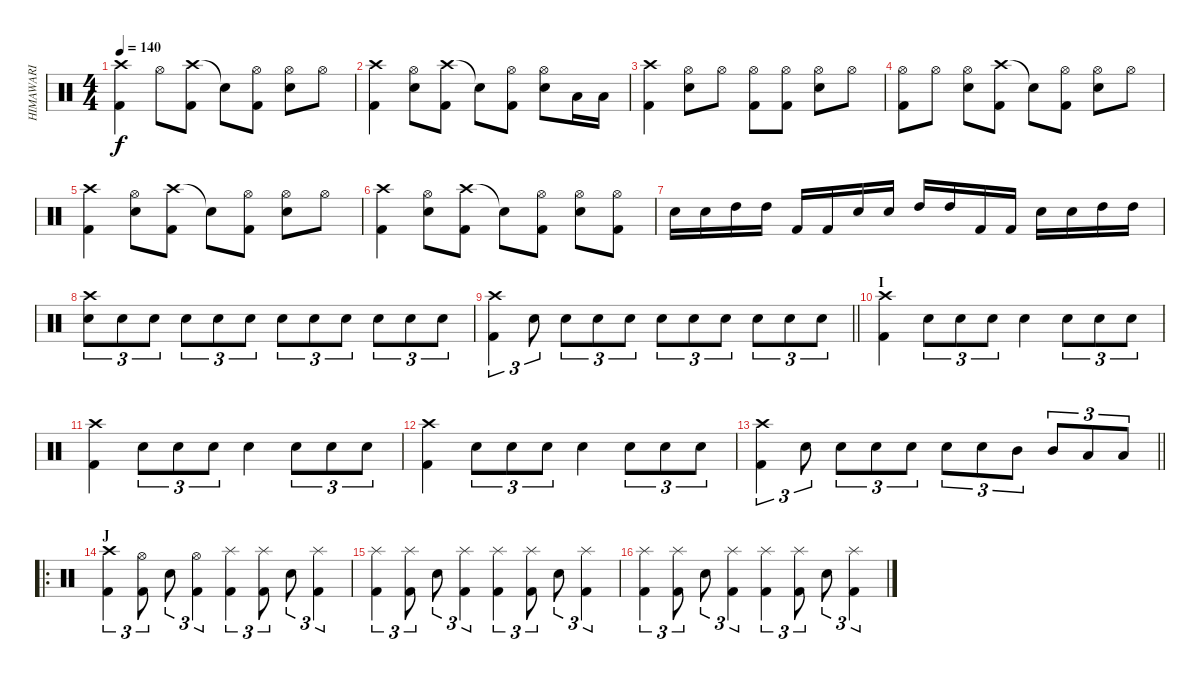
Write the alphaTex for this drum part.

\track ("HIMAWARI" "HIMAWARI") {instrument percussion}
\staff {score}
\articulation defaults
\ts (4 4)
\tempo 140
\clef neutral
\ks c
("Crash high (hit)" "Kick (hit) 2").4{dy f} "Hi-Hat (open)".8 ("Crash high (hit)" "Kick (hit) 2").8 "Snare (hit)"{t}.8 ("Hi-Hat (open)" "Kick (hit) 2").8 ("Hi-Hat (open)" "Snare (hit) 2").8 "Hi-Hat (open)".8 |
("Crash high (hit)" "Kick (hit) 2").4 ("Hi-Hat (open)" "Snare (hit) 2").8 ("Crash high (hit)" "Kick (hit) 2").8 "Snare (hit)"{t}.8 ("Hi-Hat (open)" "Kick (hit) 2").8 ("Hi-Hat (open)" "Snare (hit) 2").8 "Low Tom (hit)".16 "Low Tom (hit)".16 |
("Crash high (hit)" "Kick (hit) 2").4 ("Hi-Hat (open)" "Snare (hit) 2").8 "Hi-Hat (open)".8 ("Hi-Hat (open)" "Kick (hit) 2").8 ("Hi-Hat (open)" "Kick (hit) 2").8 ("Hi-Hat (open)" "Snare (hit) 2").8 "Hi-Hat (open)".8 |
("Hi-Hat (open)" "Kick (hit) 2").8 "Hi-Hat (open)".8 ("Hi-Hat (open)" "Snare (hit) 2").8 ("Crash high (hit)" "Kick (hit) 2").8 "Snare (hit)"{t}.8 ("Hi-Hat (open)" "Kick (hit) 2").8 ("Hi-Hat (open)" "Snare (hit) 2").8 "Hi-Hat (open)".8 |
("Crash high (hit)" "Kick (hit) 2").4 ("Hi-Hat (open)" "Snare (hit) 2").8 ("Crash high (hit)" "Kick (hit) 2").8 "Snare (hit)"{t}.8 ("Hi-Hat (open)" "Kick (hit) 2").8 ("Hi-Hat (open)" "Snare (hit) 2").8 "Hi-Hat (open)".8 |
("Crash high (hit)" "Kick (hit) 2").4 ("Hi-Hat (open)" "Snare (hit) 2").8 ("Crash high (hit)" "Kick (hit) 2").8 "Snare (hit)"{t}.8 ("Hi-Hat (open)" "Kick (hit) 2").8 ("Hi-Hat (open)" "Snare (hit) 2").8 ("Hi-Hat (open)" "Kick (hit) 2").8 |
"Snare (hit) 2".16 "Snare (hit) 2".16 "High Tom (hit)".16 "High Tom (hit)".16 "Kick (hit) 2".16 "Kick (hit) 2".16 "Snare (hit) 2".16 "Snare (hit) 2".16 "High Tom (hit)".16 "High Tom (hit)".16 "Kick (hit) 2".16 "Kick (hit) 2".16 "Snare (hit) 2".16 "Snare (hit) 2".16 "High Tom (hit)".16 "High Tom (hit)".16 |
("Crash high (hit)" "Snare (hit) 2").8{tu (3 2)} "Snare (hit) 2".8{tu (3 2)} "Snare (hit) 2".8{tu (3 2)} "Snare (hit) 2".8{tu (3 2)} "Snare (hit) 2".8{tu (3 2)} "Snare (hit) 2".8{tu (3 2)} "Snare (hit) 2".8{tu (3 2)} "Snare (hit) 2".8{tu (3 2)} "Snare (hit) 2".8{tu (3 2)} "Snare (hit) 2".8{tu (3 2)} "Snare (hit) 2".8{tu (3 2)} "Snare (hit) 2".8{tu (3 2)} |
\barLineRight lightlight
("Crash high (hit)" "Kick (hit) 2").4{tu (3 2)} "Snare (hit) 2".8{tu (3 2)} "Snare (hit) 2".8{tu (3 2)} "Snare (hit) 2".8{tu (3 2)} "Snare (hit) 2".8{tu (3 2)} "Snare (hit) 2".8{tu (3 2)} "Snare (hit) 2".8{tu (3 2)} "Snare (hit) 2".8{tu (3 2)} "Snare (hit) 2".8{tu (3 2)} "Snare (hit) 2".8{tu (3 2)} "Snare (hit) 2".8{tu (3 2)} |
\section ("" "I")
("Crash high (hit)" "Kick (hit) 2").4 "Snare (hit) 2".8{tu (3 2)} "Snare (hit) 2".8{tu (3 2)} "Snare (hit) 2".8{tu (3 2)} "Snare (hit) 2".4 "Snare (hit) 2".8{tu (3 2)} "Snare (hit) 2".8{tu (3 2)} "Snare (hit) 2".8{tu (3 2)} |
("Crash high (hit)" "Kick (hit) 2").4 "Snare (hit) 2".8{tu (3 2)} "Snare (hit) 2".8{tu (3 2)} "Snare (hit) 2".8{tu (3 2)} "Snare (hit) 2".4 "Snare (hit) 2".8{tu (3 2)} "Snare (hit) 2".8{tu (3 2)} "Snare (hit) 2".8{tu (3 2)} |
("Crash high (hit)" "Kick (hit) 2").4 "Snare (hit) 2".8{tu (3 2)} "Snare (hit) 2".8{tu (3 2)} "Snare (hit) 2".8{tu (3 2)} "Snare (hit) 2".4 "Snare (hit) 2".8{tu (3 2)} "Snare (hit) 2".8{tu (3 2)} "Snare (hit) 2".8{tu (3 2)} |
\barLineRight lightlight
("Crash high (hit)" "Kick (hit) 2").4{tu (3 2)} "Snare (hit) 2".8{tu (3 2)} "Snare (hit) 2".8{tu (3 2)} "Snare (hit) 2".8{tu (3 2)} "Snare (hit) 2".8{tu (3 2)} "Snare (hit) 2".8{tu (3 2)} "Snare (hit) 2".8{tu (3 2)} "Mid Tom (hit)".8{tu (3 2)} "Mid Tom (hit)".8{tu (3 2)} "Low Tom (hit)".8{tu (3 2)} "Low Tom (hit)".8{tu (3 2)} |
\ro
\section ("" "J")
("Crash high (hit)" "Kick (hit) 2").4{tu (3 2)} ("Hi-Hat (open)" "Kick (hit) 2").8{tu (3 2)} "Snare (hit) 2".8{tu (3 2)} ("Hi-Hat (open)" "Kick (hit) 2").4{tu (3 2)} ("Splash (hit)" "Kick (hit) 2").4{tu (3 2)} ("Splash (hit)" "Kick (hit) 2").8{tu (3 2)} "Snare (hit) 2".8{tu (3 2)} ("Splash (hit)" "Kick (hit) 2").4{tu (3 2)} |
("Splash (hit)" "Kick (hit) 2").4{tu (3 2)} ("Splash (hit)" "Kick (hit) 2").8{tu (3 2)} "Snare (hit) 2".8{tu (3 2)} ("Splash (hit)" "Kick (hit) 2").4{tu (3 2)} ("Splash (hit)" "Kick (hit) 2").4{tu (3 2)} ("Splash (hit)" "Kick (hit) 2").8{tu (3 2)} "Snare (hit) 2".8{tu (3 2)} ("Splash (hit)" "Kick (hit) 2").4{tu (3 2)} |
("Splash (hit)" "Kick (hit) 2").4{tu (3 2)} ("Splash (hit)" "Kick (hit) 2").8{tu (3 2)} "Snare (hit) 2".8{tu (3 2)} ("Splash (hit)" "Kick (hit) 2").4{tu (3 2)} ("Splash (hit)" "Kick (hit) 2").4{tu (3 2)} ("Splash (hit)" "Kick (hit) 2").8{tu (3 2)} "Snare (hit) 2".8{tu (3 2)} ("Splash (hit)" "Kick (hit) 2").4{tu (3 2)}
